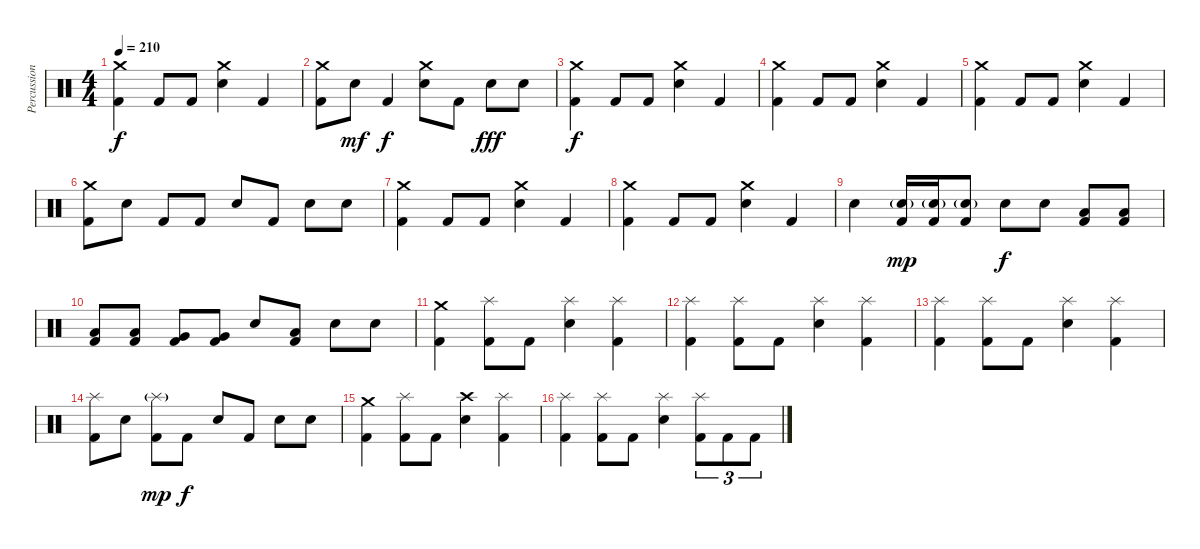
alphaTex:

\track ("Percussion" "Percussion") {instrument percussion}
\staff {score}
\articulation defaults
\ts (4 4)
\tempo 210
\clef neutral
\ks c
("Crash medium (hit)" "Kick (hit) 2").4{dy f} "Kick (hit) 2".8 "Kick (hit) 2".8 ("Crash medium (hit)" "Electric Snare (hit)").4 "Kick (hit) 2".4 |
("Crash medium (hit)" "Kick (hit) 2").8 "Electric Snare (hit)".8{dy mf} "Kick (hit) 2".4{dy f} ("Crash medium (hit)" "Electric Snare (hit)").8 "Kick (hit) 2".8 "Electric Snare (hit)".8{dy fff} "Electric Snare (hit)".8 |
("Crash medium (hit)" "Kick (hit) 2").4{dy f} "Kick (hit) 2".8 "Kick (hit) 2".8 ("Crash medium (hit)" "Electric Snare (hit)").4 "Kick (hit) 2".4 |
("Crash medium (hit)" "Kick (hit) 2").4 "Kick (hit) 2".8 "Kick (hit) 2".8 ("Crash medium (hit)" "Electric Snare (hit)").4 "Kick (hit) 2".4 |
("Crash medium (hit)" "Kick (hit) 2").4 "Kick (hit) 2".8 "Kick (hit) 2".8 ("Crash medium (hit)" "Electric Snare (hit)").4 "Kick (hit) 2".4 |
("Crash medium (hit)" "Kick (hit) 2").8 "Electric Snare (hit)".8 "Kick (hit) 2".8 "Kick (hit) 2".8 "Electric Snare (hit)".8 "Kick (hit) 2".8 "Electric Snare (hit)".8 "Electric Snare (hit)".8 |
("Crash medium (hit)" "Kick (hit) 2").4 "Kick (hit) 2".8 "Kick (hit) 2".8 ("Crash medium (hit)" "Electric Snare (hit)").4 "Kick (hit) 2".4 |
("Crash medium (hit)" "Kick (hit) 2").4 "Kick (hit) 2".8 "Kick (hit) 2".8 ("Crash medium (hit)" "Electric Snare (hit)").4 "Kick (hit) 2".4 |
"Electric Snare (hit)".4 ("Electric Snare (hit)"{g} "Kick (hit) 2").16{dy mp} ("Electric Snare (hit)"{g} "Kick (hit) 2").16 ("Electric Snare (hit)"{g} "Kick (hit) 2").8 "Electric Snare (hit)".8{dy f} "Electric Snare (hit)".8 ("Low Tom (hit)" "Kick (hit) 2").8 ("Low Tom (hit)" "Kick (hit) 2").8 |
("Low Tom (hit)" "Kick (hit) 2").8 ("Low Tom (hit)" "Kick (hit) 2").8 ("Very Low Tom (hit)" "Kick (hit) 2").8 ("Very Low Tom (hit)" "Kick (hit) 2").8 "Electric Snare (hit)".8 ("Low Tom (hit)" "Kick (hit) 2").8 "Electric Snare (hit)".8 "Electric Snare (hit)".8 |
("Crash medium (hit)" "Kick (hit) 2").4 ("Splash (hit)" "Kick (hit) 2").8 "Kick (hit) 2".8 ("Splash (hit)" "Electric Snare (hit)").4 ("Splash (hit)" "Kick (hit) 2").4 |
("Splash (hit)" "Kick (hit) 2").4 ("Splash (hit)" "Kick (hit) 2").8 "Kick (hit) 2".8 ("Splash (hit)" "Electric Snare (hit)").4 ("Splash (hit)" "Kick (hit) 2").4 |
("Splash (hit)" "Kick (hit) 2").4 ("Splash (hit)" "Kick (hit) 2").8 "Kick (hit) 2".8 ("Splash (hit)" "Electric Snare (hit)").4 ("Splash (hit)" "Kick (hit) 2").4 |
("Splash (hit)" "Kick (hit) 2").8 "Electric Snare (hit)".8 ("Splash (hit)"{g} "Kick (hit) 2").8{dy mp} "Kick (hit) 2".8{dy f} "Electric Snare (hit)".8 "Kick (hit) 2".8 "Electric Snare (hit)".8 "Electric Snare (hit)".8 |
("Crash medium (hit)" "Kick (hit) 2").4 ("Splash (hit)" "Kick (hit) 2").8 "Kick (hit) 2".8 ("Crash high (hit)" "Electric Snare (hit)").4 ("Splash (hit)" "Kick (hit) 2").4 |
("Splash (hit)" "Kick (hit) 2").4 ("Splash (hit)" "Kick (hit) 2").8 "Kick (hit) 2".8 ("Splash (hit)" "Electric Snare (hit)").4 ("Splash (hit)" "Kick (hit) 2").8{tu (3 2)} "Kick (hit) 2".8{tu (3 2)} "Kick (hit) 2".8{tu (3 2)}
